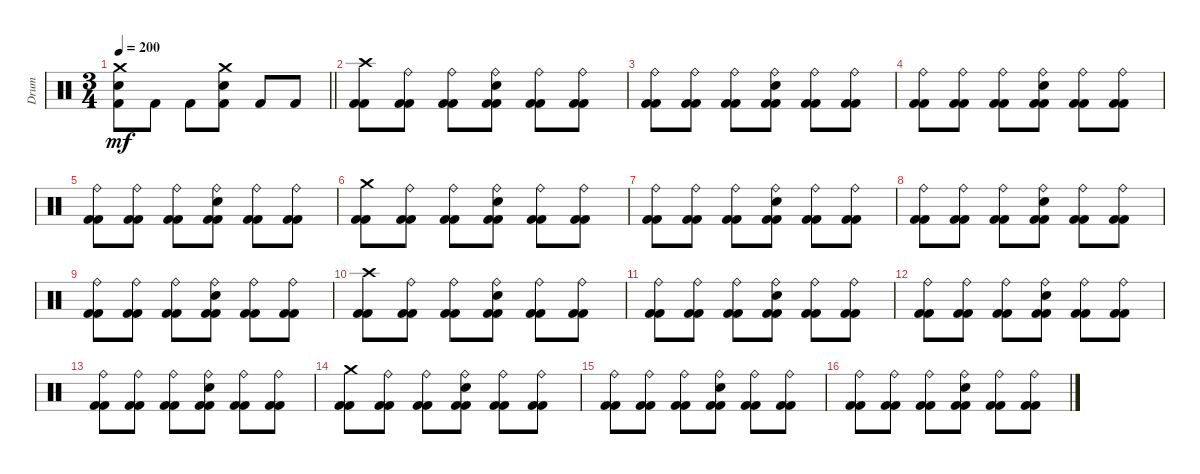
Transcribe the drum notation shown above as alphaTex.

\track ("Drum" "Drum") {instrument percussion}
\staff {score}
\articulation defaults
\ts (3 4)
\tempo 200
\clef neutral
\barLineRight lightlight
\ks c
("Crash medium (hit)" "Electric Snare (hit)" "Kick (hit) 2").8{dy mf} "Kick (hit) 2".8 "Kick (hit) 2".8 ("Crash medium (hit)" "Electric Snare (hit)" "Kick (hit) 2").8 "Kick (hit) 2".8 "Kick (hit) 2".8 |
("Crash high (hit)" "Kick (hit) 2" "Kick (hit) 2").8 ("Ride (bell)" "Kick (hit) 2" "Kick (hit) 2").8 ("Ride (bell)" "Kick (hit) 2" "Kick (hit) 2").8 ("Ride (bell)" "Electric Snare (hit)" "Kick (hit) 2" "Kick (hit) 2").8 ("Ride (bell)" "Kick (hit) 2" "Kick (hit) 2").8 ("Ride (bell)" "Kick (hit) 2" "Kick (hit) 2").8 |
("Ride (bell)" "Kick (hit) 2" "Kick (hit) 2").8 ("Ride (bell)" "Kick (hit) 2" "Kick (hit) 2").8 ("Ride (bell)" "Kick (hit) 2" "Kick (hit) 2").8 ("Ride (bell)" "Electric Snare (hit)" "Kick (hit) 2" "Kick (hit) 2").8 ("Ride (bell)" "Kick (hit) 2" "Kick (hit) 2").8 ("Ride (bell)" "Kick (hit) 2" "Kick (hit) 2").8 |
("Ride (bell)" "Kick (hit) 2" "Kick (hit) 2").8 ("Ride (bell)" "Kick (hit) 2" "Kick (hit) 2").8 ("Ride (bell)" "Kick (hit) 2" "Kick (hit) 2").8 ("Ride (bell)" "Electric Snare (hit)" "Kick (hit) 2" "Kick (hit) 2").8 ("Ride (bell)" "Kick (hit) 2" "Kick (hit) 2").8 ("Ride (bell)" "Kick (hit) 2" "Kick (hit) 2").8 |
("Ride (bell)" "Kick (hit) 2" "Kick (hit) 2").8 ("Ride (bell)" "Kick (hit) 2" "Kick (hit) 2").8 ("Ride (bell)" "Kick (hit) 2" "Kick (hit) 2").8 ("Ride (bell)" "Electric Snare (hit)" "Kick (hit) 2" "Kick (hit) 2").8 ("Ride (bell)" "Kick (hit) 2" "Kick (hit) 2").8 ("Ride (bell)" "Kick (hit) 2" "Kick (hit) 2").8 |
("Crash medium (hit)" "Kick (hit) 2" "Kick (hit) 2").8 ("Ride (bell)" "Kick (hit) 2" "Kick (hit) 2").8 ("Ride (bell)" "Kick (hit) 2" "Kick (hit) 2").8 ("Ride (bell)" "Electric Snare (hit)" "Kick (hit) 2" "Kick (hit) 2").8 ("Ride (bell)" "Kick (hit) 2" "Kick (hit) 2").8 ("Ride (bell)" "Kick (hit) 2" "Kick (hit) 2").8 |
("Ride (bell)" "Kick (hit) 2" "Kick (hit) 2").8 ("Ride (bell)" "Kick (hit) 2" "Kick (hit) 2").8 ("Ride (bell)" "Kick (hit) 2" "Kick (hit) 2").8 ("Ride (bell)" "Electric Snare (hit)" "Kick (hit) 2" "Kick (hit) 2").8 ("Ride (bell)" "Kick (hit) 2" "Kick (hit) 2").8 ("Ride (bell)" "Kick (hit) 2" "Kick (hit) 2").8 |
("Ride (bell)" "Kick (hit) 2" "Kick (hit) 2").8 ("Ride (bell)" "Kick (hit) 2" "Kick (hit) 2").8 ("Ride (bell)" "Kick (hit) 2" "Kick (hit) 2").8 ("Ride (bell)" "Electric Snare (hit)" "Kick (hit) 2" "Kick (hit) 2").8 ("Ride (bell)" "Kick (hit) 2" "Kick (hit) 2").8 ("Ride (bell)" "Kick (hit) 2" "Kick (hit) 2").8 |
("Ride (bell)" "Kick (hit) 2" "Kick (hit) 2").8 ("Ride (bell)" "Kick (hit) 2" "Kick (hit) 2").8 ("Ride (bell)" "Kick (hit) 2" "Kick (hit) 2").8 ("Ride (bell)" "Electric Snare (hit)" "Kick (hit) 2" "Kick (hit) 2").8 ("Ride (bell)" "Kick (hit) 2" "Kick (hit) 2").8 ("Ride (bell)" "Kick (hit) 2" "Kick (hit) 2").8 |
("Crash high (hit)" "Kick (hit) 2" "Kick (hit) 2").8 ("Ride (bell)" "Kick (hit) 2" "Kick (hit) 2").8 ("Ride (bell)" "Kick (hit) 2" "Kick (hit) 2").8 ("Ride (bell)" "Electric Snare (hit)" "Kick (hit) 2" "Kick (hit) 2").8 ("Ride (bell)" "Kick (hit) 2" "Kick (hit) 2").8 ("Ride (bell)" "Kick (hit) 2" "Kick (hit) 2").8 |
("Ride (bell)" "Kick (hit) 2" "Kick (hit) 2").8 ("Ride (bell)" "Kick (hit) 2" "Kick (hit) 2").8 ("Ride (bell)" "Kick (hit) 2" "Kick (hit) 2").8 ("Ride (bell)" "Electric Snare (hit)" "Kick (hit) 2" "Kick (hit) 2").8 ("Ride (bell)" "Kick (hit) 2" "Kick (hit) 2").8 ("Ride (bell)" "Kick (hit) 2" "Kick (hit) 2").8 |
("Ride (bell)" "Kick (hit) 2" "Kick (hit) 2").8 ("Ride (bell)" "Kick (hit) 2" "Kick (hit) 2").8 ("Ride (bell)" "Kick (hit) 2" "Kick (hit) 2").8 ("Ride (bell)" "Electric Snare (hit)" "Kick (hit) 2" "Kick (hit) 2").8 ("Ride (bell)" "Kick (hit) 2" "Kick (hit) 2").8 ("Ride (bell)" "Kick (hit) 2" "Kick (hit) 2").8 |
("Ride (bell)" "Kick (hit) 2" "Kick (hit) 2").8 ("Ride (bell)" "Kick (hit) 2" "Kick (hit) 2").8 ("Ride (bell)" "Kick (hit) 2" "Kick (hit) 2").8 ("Ride (bell)" "Electric Snare (hit)" "Kick (hit) 2" "Kick (hit) 2").8 ("Ride (bell)" "Kick (hit) 2" "Kick (hit) 2").8 ("Ride (bell)" "Kick (hit) 2" "Kick (hit) 2").8 |
("Crash medium (hit)" "Kick (hit) 2" "Kick (hit) 2").8 ("Ride (bell)" "Kick (hit) 2" "Kick (hit) 2").8 ("Ride (bell)" "Kick (hit) 2" "Kick (hit) 2").8 ("Ride (bell)" "Electric Snare (hit)" "Kick (hit) 2" "Kick (hit) 2").8 ("Ride (bell)" "Kick (hit) 2" "Kick (hit) 2").8 ("Ride (bell)" "Kick (hit) 2" "Kick (hit) 2").8 |
("Ride (bell)" "Kick (hit) 2" "Kick (hit) 2").8 ("Ride (bell)" "Kick (hit) 2" "Kick (hit) 2").8 ("Ride (bell)" "Kick (hit) 2" "Kick (hit) 2").8 ("Ride (bell)" "Electric Snare (hit)" "Kick (hit) 2" "Kick (hit) 2").8 ("Ride (bell)" "Kick (hit) 2" "Kick (hit) 2").8 ("Ride (bell)" "Kick (hit) 2" "Kick (hit) 2").8 |
("Ride (bell)" "Kick (hit) 2" "Kick (hit) 2").8 ("Ride (bell)" "Kick (hit) 2" "Kick (hit) 2").8 ("Ride (bell)" "Kick (hit) 2" "Kick (hit) 2").8 ("Ride (bell)" "Electric Snare (hit)" "Kick (hit) 2" "Kick (hit) 2").8 ("Ride (bell)" "Kick (hit) 2" "Kick (hit) 2").8 ("Ride (bell)" "Kick (hit) 2" "Kick (hit) 2").8
